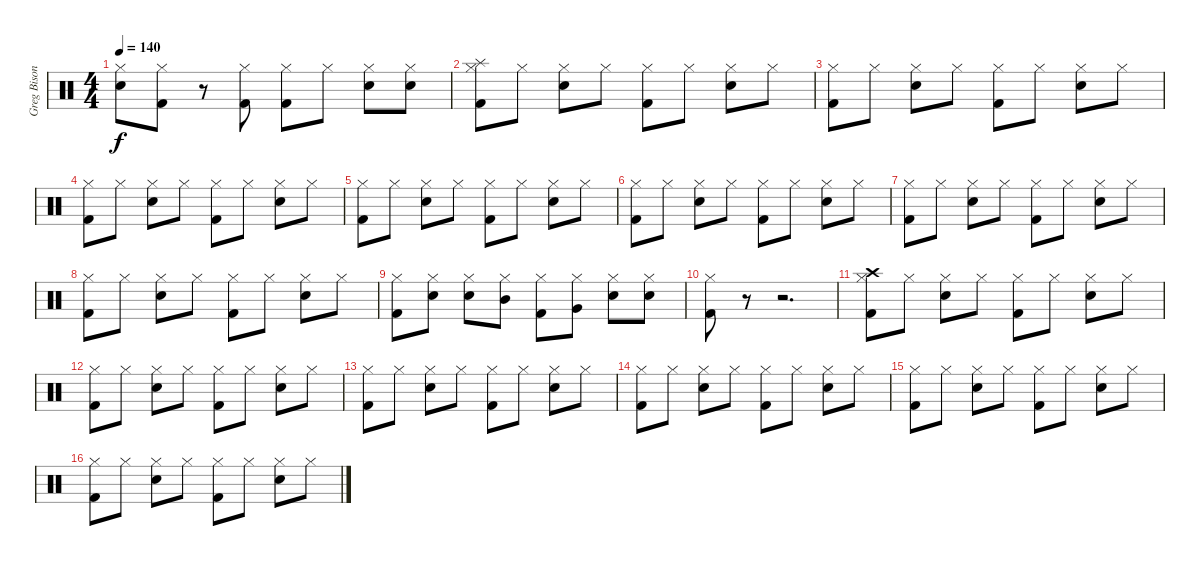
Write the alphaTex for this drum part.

\track ("Greg Bisonette" "Greg Bison") {instrument percussion}
\staff {score}
\articulation defaults
\ts (4 4)
\tempo 140
\clef neutral
\ks c
("Hi-Hat (closed)" "Electric Snare (hit)").8{dy f} ("Hi-Hat (closed)" "Kick (hit) 2").8 r.8 ("Hi-Hat (closed)" "Kick (hit) 2").8 ("Hi-Hat (closed)" "Kick (hit) 2").8 "Hi-Hat (closed)".8 ("Hi-Hat (closed)" "Electric Snare (hit)").8 ("Hi-Hat (closed)" "Snare (hit) 2").8 |
("Splash (hit)" "Hi-Hat (closed)" "Kick (hit) 2").8 "Hi-Hat (closed)".8 ("Hi-Hat (closed)" "Electric Snare (hit)").8 "Hi-Hat (closed)".8 ("Hi-Hat (closed)" "Kick (hit) 2").8 "Hi-Hat (closed)".8 ("Hi-Hat (closed)" "Electric Snare (hit)").8 "Hi-Hat (closed)".8 |
("Hi-Hat (closed)" "Kick (hit) 2").8 "Hi-Hat (closed)".8 ("Hi-Hat (closed)" "Electric Snare (hit)").8 "Hi-Hat (closed)".8 ("Hi-Hat (closed)" "Kick (hit) 2").8 "Hi-Hat (closed)".8 ("Hi-Hat (closed)" "Electric Snare (hit)").8 "Hi-Hat (closed)".8 |
("Hi-Hat (closed)" "Kick (hit) 2").8 "Hi-Hat (closed)".8 ("Hi-Hat (closed)" "Electric Snare (hit)").8 "Hi-Hat (closed)".8 ("Hi-Hat (closed)" "Kick (hit) 2").8 "Hi-Hat (closed)".8 ("Hi-Hat (closed)" "Electric Snare (hit)").8 "Hi-Hat (closed)".8 |
("Hi-Hat (closed)" "Kick (hit) 2").8 "Hi-Hat (closed)".8 ("Hi-Hat (closed)" "Electric Snare (hit)").8 "Hi-Hat (closed)".8 ("Hi-Hat (closed)" "Kick (hit) 2").8 "Hi-Hat (closed)".8 ("Hi-Hat (closed)" "Electric Snare (hit)").8 "Hi-Hat (closed)".8 |
("Hi-Hat (closed)" "Kick (hit) 2").8 "Hi-Hat (closed)".8 ("Hi-Hat (closed)" "Electric Snare (hit)").8 "Hi-Hat (closed)".8 ("Hi-Hat (closed)" "Kick (hit) 2").8 "Hi-Hat (closed)".8 ("Hi-Hat (closed)" "Electric Snare (hit)").8 "Hi-Hat (closed)".8 |
("Hi-Hat (closed)" "Kick (hit) 2").8 "Hi-Hat (closed)".8 ("Hi-Hat (closed)" "Electric Snare (hit)").8 "Hi-Hat (closed)".8 ("Hi-Hat (closed)" "Kick (hit) 2").8 "Hi-Hat (closed)".8 ("Hi-Hat (closed)" "Electric Snare (hit)").8 "Hi-Hat (closed)".8 |
("Hi-Hat (closed)" "Kick (hit) 2").8 "Hi-Hat (closed)".8 ("Hi-Hat (closed)" "Electric Snare (hit)").8 "Hi-Hat (closed)".8 ("Hi-Hat (closed)" "Kick (hit) 2").8 "Hi-Hat (closed)".8 ("Hi-Hat (closed)" "Electric Snare (hit)").8 "Hi-Hat (closed)".8 |
("Hi-Hat (closed)" "Kick (hit) 2").8 ("Hi-Hat (closed)" "Snare (hit) 2").8 ("Hi-Hat (closed)" "Electric Snare (hit)").8 ("Hi-Hat (closed)" "Mid Tom (hit)").8 ("Hi-Hat (closed)" "Kick (hit) 2").8 ("Hi-Hat (closed)" "Very Low Tom (hit)").8 ("Hi-Hat (closed)" "Electric Snare (hit)").8 ("Hi-Hat (closed)" "Electric Snare (hit)").8 |
("Hi-Hat (closed)" "Kick (hit) 2").8 r.8 r.2{d} |
("Crash high (hit)" "Hi-Hat (closed)" "Kick (hit) 2").8 "Hi-Hat (closed)".8 ("Hi-Hat (closed)" "Electric Snare (hit)").8 "Hi-Hat (closed)".8 ("Hi-Hat (closed)" "Kick (hit) 2").8 "Hi-Hat (closed)".8 ("Hi-Hat (closed)" "Electric Snare (hit)").8 "Hi-Hat (closed)".8 |
("Hi-Hat (closed)" "Kick (hit) 2").8 "Hi-Hat (closed)".8 ("Hi-Hat (closed)" "Electric Snare (hit)").8 "Hi-Hat (closed)".8 ("Hi-Hat (closed)" "Kick (hit) 2").8 "Hi-Hat (closed)".8 ("Hi-Hat (closed)" "Electric Snare (hit)").8 "Hi-Hat (closed)".8 |
("Hi-Hat (closed)" "Kick (hit) 2").8 "Hi-Hat (closed)".8 ("Hi-Hat (closed)" "Electric Snare (hit)").8 "Hi-Hat (closed)".8 ("Hi-Hat (closed)" "Kick (hit) 2").8 "Hi-Hat (closed)".8 ("Hi-Hat (closed)" "Electric Snare (hit)").8 "Hi-Hat (closed)".8 |
("Hi-Hat (closed)" "Kick (hit) 2").8 "Hi-Hat (closed)".8 ("Hi-Hat (closed)" "Electric Snare (hit)").8 "Hi-Hat (closed)".8 ("Hi-Hat (closed)" "Kick (hit) 2").8 "Hi-Hat (closed)".8 ("Hi-Hat (closed)" "Electric Snare (hit)").8 "Hi-Hat (closed)".8 |
("Hi-Hat (closed)" "Kick (hit) 2").8 "Hi-Hat (closed)".8 ("Hi-Hat (closed)" "Electric Snare (hit)").8 "Hi-Hat (closed)".8 ("Hi-Hat (closed)" "Kick (hit) 2").8 "Hi-Hat (closed)".8 ("Hi-Hat (closed)" "Electric Snare (hit)").8 "Hi-Hat (closed)".8 |
("Hi-Hat (closed)" "Kick (hit) 2").8 "Hi-Hat (closed)".8 ("Hi-Hat (closed)" "Electric Snare (hit)").8 "Hi-Hat (closed)".8 ("Hi-Hat (closed)" "Kick (hit) 2").8 "Hi-Hat (closed)".8 ("Hi-Hat (closed)" "Electric Snare (hit)").8 "Hi-Hat (closed)".8
